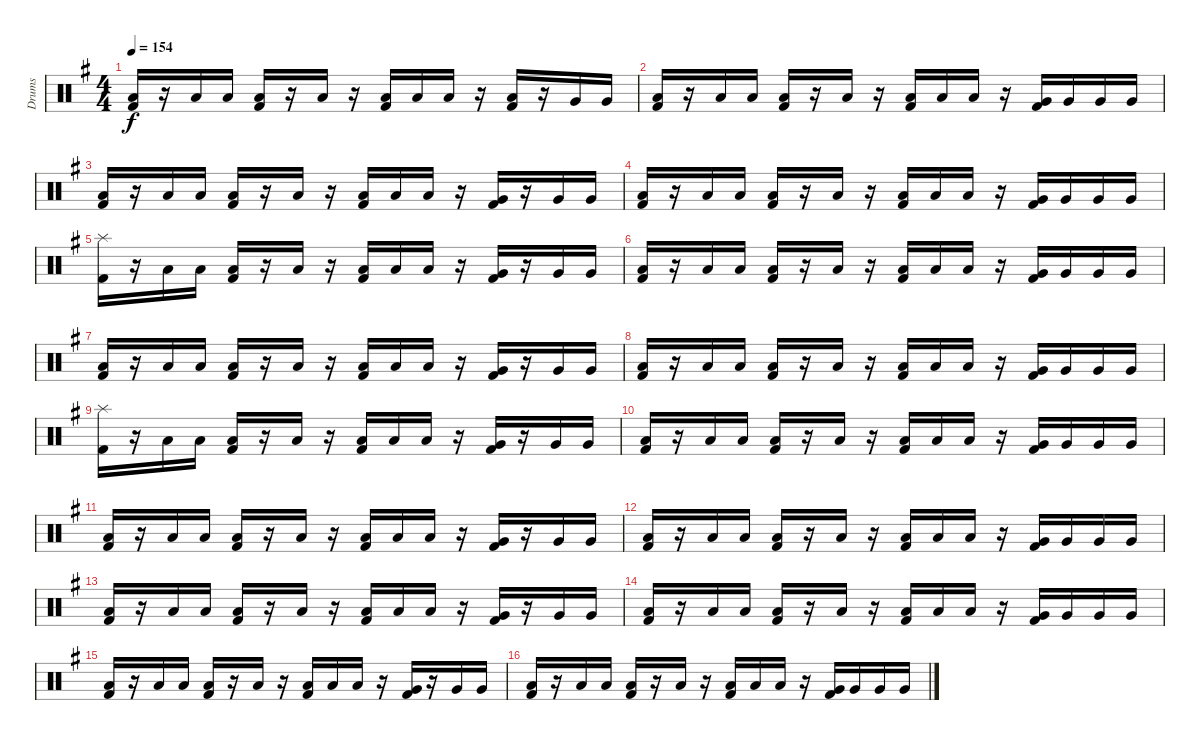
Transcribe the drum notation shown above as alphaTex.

\track ("Drums" "Drums") {instrument percussion}
\staff {score}
\articulation defaults
\ts (4 4)
\tempo 154
\clef neutral
\ks g
("Low Tom (hit)" "Kick (hit) 2").16{dy f} r.16 "Low Tom (hit)".16 "Low Tom (hit)".16 ("Low Tom (hit)" "Kick (hit) 2").16 r.16 "Low Tom (hit)".16 r.16 ("Low Tom (hit)" "Kick (hit) 2").16 "Low Tom (hit)".16 "Low Tom (hit)".16 r.16 ("Low Tom (hit)" "Kick (hit) 2").16 r.16 "Very Low Tom (hit)".16 "Very Low Tom (hit)".16 |
("Low Tom (hit)" "Kick (hit) 2").16 r.16 "Low Tom (hit)".16 "Low Tom (hit)".16 ("Low Tom (hit)" "Kick (hit) 2").16 r.16 "Low Tom (hit)".16 r.16 ("Low Tom (hit)" "Kick (hit) 2").16 "Low Tom (hit)".16 "Low Tom (hit)".16 r.16 ("Very Low Tom (hit)" "Kick (hit) 2").16 "Very Low Tom (hit)".16 "Very Low Tom (hit)".16 "Very Low Tom (hit)".16 |
("Low Tom (hit)" "Kick (hit) 2").16 r.16 "Low Tom (hit)".16 "Low Tom (hit)".16 ("Low Tom (hit)" "Kick (hit) 2").16 r.16 "Low Tom (hit)".16 r.16 ("Low Tom (hit)" "Kick (hit) 2").16 "Low Tom (hit)".16 "Low Tom (hit)".16 r.16 ("Very Low Tom (hit)" "Kick (hit) 2").16 r.16 "Very Low Tom (hit)".16 "Very Low Tom (hit)".16 |
("Low Tom (hit)" "Kick (hit) 2").16 r.16 "Low Tom (hit)".16 "Low Tom (hit)".16 ("Low Tom (hit)" "Kick (hit) 2").16 r.16 "Low Tom (hit)".16 r.16 ("Low Tom (hit)" "Kick (hit) 2").16 "Low Tom (hit)".16 "Low Tom (hit)".16 r.16 ("Very Low Tom (hit)" "Kick (hit) 2").16 "Very Low Tom (hit)".16 "Very Low Tom (hit)".16 "Very Low Tom (hit)".16 |
("Kick (hit) 2" "Splash (hit)").16 r.16 "Low Tom (hit)".16 "Low Tom (hit)".16 ("Low Tom (hit)" "Kick (hit) 2").16 r.16 "Low Tom (hit)".16 r.16 ("Low Tom (hit)" "Kick (hit) 2").16 "Low Tom (hit)".16 "Low Tom (hit)".16 r.16 ("Very Low Tom (hit)" "Kick (hit) 2").16 r.16 "Very Low Tom (hit)".16 "Very Low Tom (hit)".16 |
("Low Tom (hit)" "Kick (hit) 2").16 r.16 "Low Tom (hit)".16 "Low Tom (hit)".16 ("Low Tom (hit)" "Kick (hit) 2").16 r.16 "Low Tom (hit)".16 r.16 ("Low Tom (hit)" "Kick (hit) 2").16 "Low Tom (hit)".16 "Low Tom (hit)".16 r.16 ("Very Low Tom (hit)" "Kick (hit) 2").16 "Very Low Tom (hit)".16 "Very Low Tom (hit)".16 "Very Low Tom (hit)".16 |
("Low Tom (hit)" "Kick (hit) 2").16 r.16 "Low Tom (hit)".16 "Low Tom (hit)".16 ("Low Tom (hit)" "Kick (hit) 2").16 r.16 "Low Tom (hit)".16 r.16 ("Low Tom (hit)" "Kick (hit) 2").16 "Low Tom (hit)".16 "Low Tom (hit)".16 r.16 ("Very Low Tom (hit)" "Kick (hit) 2").16 r.16 "Very Low Tom (hit)".16 "Very Low Tom (hit)".16 |
("Low Tom (hit)" "Kick (hit) 2").16 r.16 "Low Tom (hit)".16 "Low Tom (hit)".16 ("Low Tom (hit)" "Kick (hit) 2").16 r.16 "Low Tom (hit)".16 r.16 ("Low Tom (hit)" "Kick (hit) 2").16 "Low Tom (hit)".16 "Low Tom (hit)".16 r.16 ("Very Low Tom (hit)" "Kick (hit) 2").16 "Very Low Tom (hit)".16 "Very Low Tom (hit)".16 "Very Low Tom (hit)".16 |
("Kick (hit) 2" "Splash (hit)").16 r.16 "Low Tom (hit)".16 "Low Tom (hit)".16 ("Low Tom (hit)" "Kick (hit) 2").16 r.16 "Low Tom (hit)".16 r.16 ("Low Tom (hit)" "Kick (hit) 2").16 "Low Tom (hit)".16 "Low Tom (hit)".16 r.16 ("Very Low Tom (hit)" "Kick (hit) 2").16 r.16 "Very Low Tom (hit)".16 "Very Low Tom (hit)".16 |
("Low Tom (hit)" "Kick (hit) 2").16 r.16 "Low Tom (hit)".16 "Low Tom (hit)".16 ("Low Tom (hit)" "Kick (hit) 2").16 r.16 "Low Tom (hit)".16 r.16 ("Low Tom (hit)" "Kick (hit) 2").16 "Low Tom (hit)".16 "Low Tom (hit)".16 r.16 ("Very Low Tom (hit)" "Kick (hit) 2").16 "Very Low Tom (hit)".16 "Very Low Tom (hit)".16 "Very Low Tom (hit)".16 |
("Low Tom (hit)" "Kick (hit) 2").16 r.16 "Low Tom (hit)".16 "Low Tom (hit)".16 ("Low Tom (hit)" "Kick (hit) 2").16 r.16 "Low Tom (hit)".16 r.16 ("Low Tom (hit)" "Kick (hit) 2").16 "Low Tom (hit)".16 "Low Tom (hit)".16 r.16 ("Very Low Tom (hit)" "Kick (hit) 2").16 r.16 "Very Low Tom (hit)".16 "Very Low Tom (hit)".16 |
("Low Tom (hit)" "Kick (hit) 2").16 r.16 "Low Tom (hit)".16 "Low Tom (hit)".16 ("Low Tom (hit)" "Kick (hit) 2").16 r.16 "Low Tom (hit)".16 r.16 ("Low Tom (hit)" "Kick (hit) 2").16 "Low Tom (hit)".16 "Low Tom (hit)".16 r.16 ("Very Low Tom (hit)" "Kick (hit) 2").16 "Very Low Tom (hit)".16 "Very Low Tom (hit)".16 "Very Low Tom (hit)".16 |
("Low Tom (hit)" "Kick (hit) 2").16 r.16 "Low Tom (hit)".16 "Low Tom (hit)".16 ("Low Tom (hit)" "Kick (hit) 2").16 r.16 "Low Tom (hit)".16 r.16 ("Low Tom (hit)" "Kick (hit) 2").16 "Low Tom (hit)".16 "Low Tom (hit)".16 r.16 ("Very Low Tom (hit)" "Kick (hit) 2").16 r.16 "Very Low Tom (hit)".16 "Very Low Tom (hit)".16 |
("Low Tom (hit)" "Kick (hit) 2").16 r.16 "Low Tom (hit)".16 "Low Tom (hit)".16 ("Low Tom (hit)" "Kick (hit) 2").16 r.16 "Low Tom (hit)".16 r.16 ("Low Tom (hit)" "Kick (hit) 2").16 "Low Tom (hit)".16 "Low Tom (hit)".16 r.16 ("Very Low Tom (hit)" "Kick (hit) 2").16 "Very Low Tom (hit)".16 "Very Low Tom (hit)".16 "Very Low Tom (hit)".16 |
("Low Tom (hit)" "Kick (hit) 2").16 r.16 "Low Tom (hit)".16 "Low Tom (hit)".16 ("Low Tom (hit)" "Kick (hit) 2").16 r.16 "Low Tom (hit)".16 r.16 ("Low Tom (hit)" "Kick (hit) 2").16 "Low Tom (hit)".16 "Low Tom (hit)".16 r.16 ("Very Low Tom (hit)" "Kick (hit) 2").16 r.16 "Very Low Tom (hit)".16 "Very Low Tom (hit)".16 |
("Low Tom (hit)" "Kick (hit) 2").16 r.16 "Low Tom (hit)".16 "Low Tom (hit)".16 ("Low Tom (hit)" "Kick (hit) 2").16 r.16 "Low Tom (hit)".16 r.16 ("Low Tom (hit)" "Kick (hit) 2").16 "Low Tom (hit)".16 "Low Tom (hit)".16 r.16 ("Very Low Tom (hit)" "Kick (hit) 2").16 "Very Low Tom (hit)".16 "Very Low Tom (hit)".16 "Very Low Tom (hit)".16
